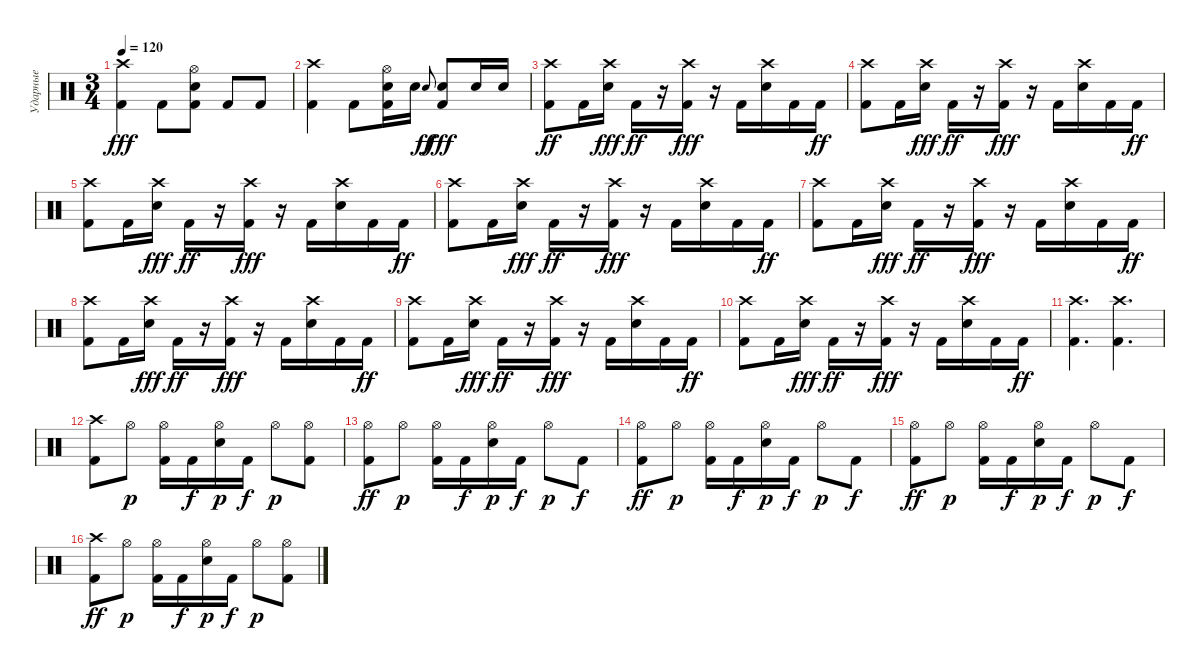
\track ("Ударные" "Ударные") {instrument percussion}
\staff {score}
\articulation defaults
\ts (3 4)
\tempo 120
\clef neutral
\ks c
("Crash high (hit)" "Kick (hit) 2").4{dy fff} "Kick (hit) 2".8 ("Kick (hit) 2" "Electric Snare (hit)" "Hi-Hat (open)").8 "Kick (hit) 2".8 "Kick (hit) 2".8 |
("Crash high (hit)" "Kick (hit) 2").4 "Kick (hit) 2".8 ("Kick (hit) 2" "Electric Snare (hit)" "Hi-Hat (open)").16 "Electric Snare (hit)".16 "Electric Snare (hit)".8{gr onbeat dy ff} ("Kick (hit) 2" "Electric Snare (hit)").8{dy fff} "Electric Snare (hit)".16 "Electric Snare (hit)".16 |
("Crash high (hit)" "Kick (hit) 2").8{dy ff volume 16 balance 8} "Kick (hit) 2".16 ("Crash high (hit)" "Electric Snare (hit)").16{dy fff} "Kick (hit) 2".16{dy ff} r.16 ("Crash high (hit)" "Kick (hit) 2").16{dy fff} r.16 "Kick (hit) 2".16 ("Crash high (hit)" "Electric Snare (hit)").16 "Kick (hit) 2".16 "Kick (hit) 2".16{dy ff} |
("Crash high (hit)" "Kick (hit) 2").8 "Kick (hit) 2".16 ("Crash high (hit)" "Electric Snare (hit)").16{dy fff} "Kick (hit) 2".16{dy ff} r.16 ("Crash high (hit)" "Kick (hit) 2").16{dy fff} r.16 "Kick (hit) 2".16 ("Crash high (hit)" "Electric Snare (hit)").16 "Kick (hit) 2".16 "Kick (hit) 2".16{dy ff} |
("Crash high (hit)" "Kick (hit) 2").8 "Kick (hit) 2".16 ("Crash high (hit)" "Electric Snare (hit)").16{dy fff} "Kick (hit) 2".16{dy ff} r.16 ("Crash high (hit)" "Kick (hit) 2").16{dy fff} r.16 "Kick (hit) 2".16 ("Crash high (hit)" "Electric Snare (hit)").16 "Kick (hit) 2".16 "Kick (hit) 2".16{dy ff} |
("Crash high (hit)" "Kick (hit) 2").8 "Kick (hit) 2".16 ("Crash high (hit)" "Electric Snare (hit)").16{dy fff} "Kick (hit) 2".16{dy ff} r.16 ("Crash high (hit)" "Kick (hit) 2").16{dy fff} r.16 "Kick (hit) 2".16 ("Crash high (hit)" "Electric Snare (hit)").16 "Kick (hit) 2".16 "Kick (hit) 2".16{dy ff} |
("Crash high (hit)" "Kick (hit) 2").8 "Kick (hit) 2".16 ("Crash high (hit)" "Electric Snare (hit)").16{dy fff} "Kick (hit) 2".16{dy ff} r.16 ("Crash high (hit)" "Kick (hit) 2").16{dy fff} r.16 "Kick (hit) 2".16 ("Crash high (hit)" "Electric Snare (hit)").16 "Kick (hit) 2".16 "Kick (hit) 2".16{dy ff} |
("Crash high (hit)" "Kick (hit) 2").8 "Kick (hit) 2".16 ("Crash high (hit)" "Electric Snare (hit)").16{dy fff} "Kick (hit) 2".16{dy ff} r.16 ("Crash high (hit)" "Kick (hit) 2").16{dy fff} r.16 "Kick (hit) 2".16 ("Crash high (hit)" "Electric Snare (hit)").16 "Kick (hit) 2".16 "Kick (hit) 2".16{dy ff} |
("Crash high (hit)" "Kick (hit) 2").8 "Kick (hit) 2".16 ("Crash high (hit)" "Electric Snare (hit)").16{dy fff} "Kick (hit) 2".16{dy ff} r.16 ("Crash high (hit)" "Kick (hit) 2").16{dy fff} r.16 "Kick (hit) 2".16 ("Crash high (hit)" "Electric Snare (hit)").16 "Kick (hit) 2".16 "Kick (hit) 2".16{dy ff} |
("Crash high (hit)" "Kick (hit) 2").8 "Kick (hit) 2".16 ("Crash high (hit)" "Electric Snare (hit)").16{dy fff} "Kick (hit) 2".16{dy ff} r.16 ("Crash high (hit)" "Kick (hit) 2").16{dy fff} r.16 "Kick (hit) 2".16 ("Crash high (hit)" "Electric Snare (hit)").16 "Kick (hit) 2".16 "Kick (hit) 2".16{dy ff} |
("Crash high (hit)" "Kick (hit) 2").4{d} ("Crash high (hit)" "Kick (hit) 2").4{d} |
("Crash high (hit)" "Kick (hit) 2").8{volume 13} "Hi-Hat (open)".8{dy p} ("Hi-Hat (open)" "Kick (hit) 2").16 "Kick (hit) 2".16{dy f} ("Hi-Hat (open)" "Electric Snare (hit)").16{dy p} "Kick (hit) 2".16{dy f} "Hi-Hat (open)".8{dy p} ("Hi-Hat (open)" "Kick (hit) 2").8 |
("Hi-Hat (open)" "Kick (hit) 2").8{dy ff} "Hi-Hat (open)".8{dy p} ("Hi-Hat (open)" "Kick (hit) 2").16 "Kick (hit) 2".16{dy f} ("Hi-Hat (open)" "Electric Snare (hit)").16{dy p} "Kick (hit) 2".16{dy f} "Hi-Hat (open)".8{dy p} "Kick (hit) 2".8{dy f} |
("Hi-Hat (open)" "Kick (hit) 2").8{dy ff} "Hi-Hat (open)".8{dy p} ("Hi-Hat (open)" "Kick (hit) 2").16 "Kick (hit) 2".16{dy f} ("Hi-Hat (open)" "Electric Snare (hit)").16{dy p} "Kick (hit) 2".16{dy f} "Hi-Hat (open)".8{dy p} "Kick (hit) 2".8{dy f} |
("Hi-Hat (open)" "Kick (hit) 2").8{dy ff} "Hi-Hat (open)".8{dy p} ("Hi-Hat (open)" "Kick (hit) 2").16 "Kick (hit) 2".16{dy f} ("Hi-Hat (open)" "Electric Snare (hit)").16{dy p} "Kick (hit) 2".16{dy f} "Hi-Hat (open)".8{dy p} "Kick (hit) 2".8{dy f} |
("Crash high (hit)" "Kick (hit) 2").8{dy ff} "Hi-Hat (open)".8{dy p} ("Hi-Hat (open)" "Kick (hit) 2").16 "Kick (hit) 2".16{dy f} ("Hi-Hat (open)" "Electric Snare (hit)").16{dy p} "Kick (hit) 2".16{dy f} "Hi-Hat (open)".8{dy p} ("Hi-Hat (open)" "Kick (hit) 2").8
